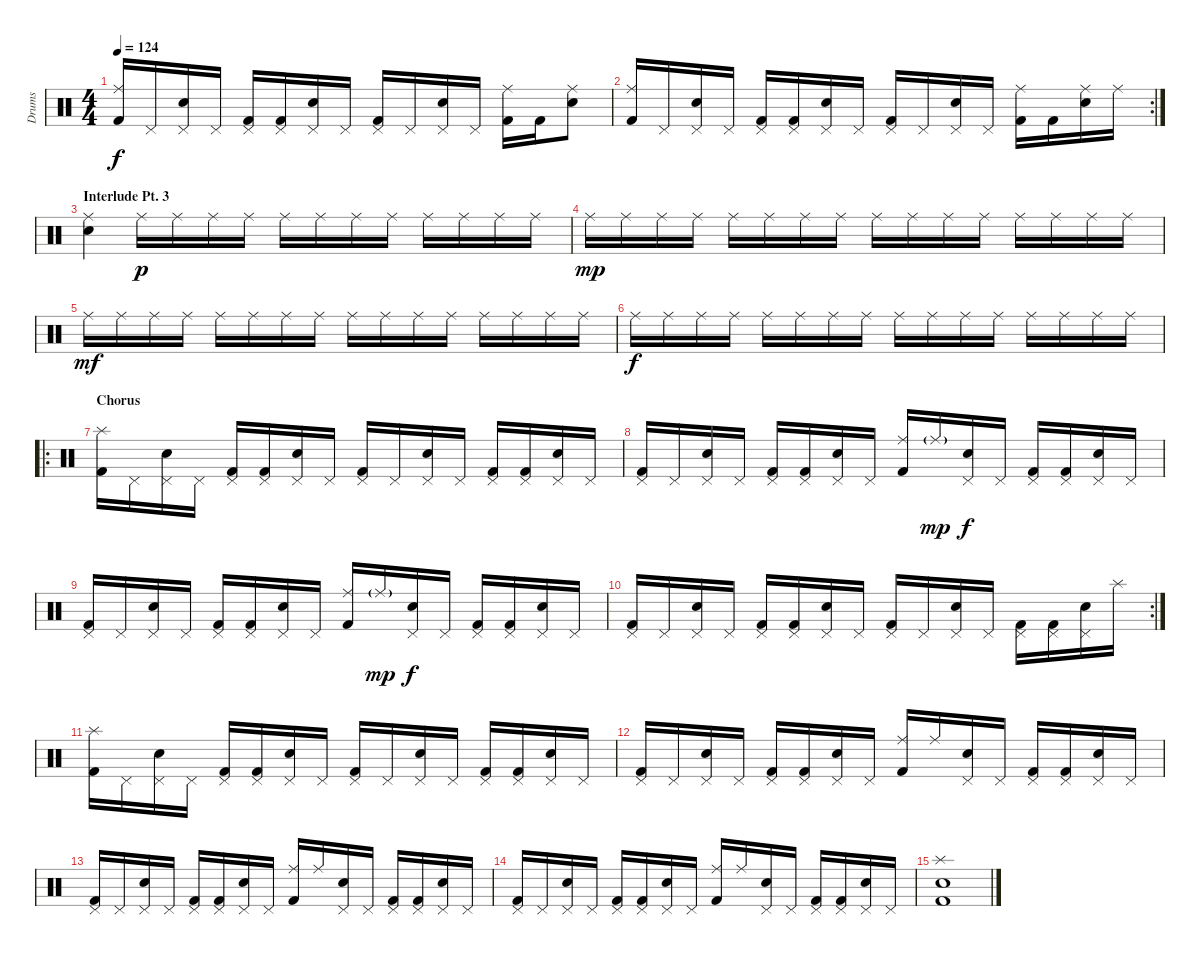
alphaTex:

\track ("Drums" "Drums") {instrument percussion}
\staff {score}
\articulation defaults
\ts (4 4)
\tempo 124
\clef neutral
\ks c
("Ride (middle)" "Kick (hit) 2").16{dy f} "Pedal Hi-Hat (hit)".16 ("Pedal Hi-Hat (hit)" "Electric Snare (hit)").16 "Pedal Hi-Hat (hit)".16 ("Pedal Hi-Hat (hit)" "Kick (hit) 2").16 ("Pedal Hi-Hat (hit)" "Kick (hit) 2").16 ("Pedal Hi-Hat (hit)" "Electric Snare (hit)").16 "Pedal Hi-Hat (hit)".16 ("Pedal Hi-Hat (hit)" "Kick (hit) 2").16 "Pedal Hi-Hat (hit)".16 ("Pedal Hi-Hat (hit)" "Electric Snare (hit)").16 "Pedal Hi-Hat (hit)".16 ("Ride (middle)" "Kick (hit) 2").16 "Kick (hit) 2".16 ("Ride (middle)" "Electric Snare (hit)").8 |
\rc 2
("Ride (middle)" "Kick (hit) 2").16 "Pedal Hi-Hat (hit)".16 ("Pedal Hi-Hat (hit)" "Electric Snare (hit)").16 "Pedal Hi-Hat (hit)".16 ("Pedal Hi-Hat (hit)" "Kick (hit) 2").16 ("Pedal Hi-Hat (hit)" "Kick (hit) 2").16 ("Pedal Hi-Hat (hit)" "Electric Snare (hit)").16 "Pedal Hi-Hat (hit)".16 ("Pedal Hi-Hat (hit)" "Kick (hit) 2").16 "Pedal Hi-Hat (hit)".16 ("Pedal Hi-Hat (hit)" "Electric Snare (hit)").16 "Pedal Hi-Hat (hit)".16 ("Ride (middle)" "Kick (hit) 2").16 "Kick (hit) 2".16 ("Ride (middle)" "Electric Snare (hit)").16 "Ride (middle)".16 |
\section ("" "Interlude Pt. 3")
("Ride (middle)" "Electric Snare (hit)").4 "Ride (middle)".16{dy p} "Ride (middle)".16 "Ride (middle)".16 "Ride (middle)".16 "Ride (middle)".16 "Ride (middle)".16 "Ride (middle)".16 "Ride (middle)".16 "Ride (middle)".16 "Ride (middle)".16 "Ride (middle)".16 "Ride (middle)".16 |
"Ride (middle)".16{dy mp} "Ride (middle)".16 "Ride (middle)".16 "Ride (middle)".16 "Ride (middle)".16 "Ride (middle)".16 "Ride (middle)".16 "Ride (middle)".16 "Ride (middle)".16 "Ride (middle)".16 "Ride (middle)".16 "Ride (middle)".16 "Ride (middle)".16 "Ride (middle)".16 "Ride (middle)".16 "Ride (middle)".16 |
"Ride (middle)".16{dy mf} "Ride (middle)".16 "Ride (middle)".16 "Ride (middle)".16 "Ride (middle)".16 "Ride (middle)".16 "Ride (middle)".16 "Ride (middle)".16 "Ride (middle)".16 "Ride (middle)".16 "Ride (middle)".16 "Ride (middle)".16 "Ride (middle)".16 "Ride (middle)".16 "Ride (middle)".16 "Ride (middle)".16 |
"Ride (middle)".16{dy f} "Ride (middle)".16 "Ride (middle)".16 "Ride (middle)".16 "Ride (middle)".16 "Ride (middle)".16 "Ride (middle)".16 "Ride (middle)".16 "Ride (middle)".16 "Ride (middle)".16 "Ride (middle)".16 "Ride (middle)".16 "Ride (middle)".16 "Ride (middle)".16 "Ride (middle)".16 "Ride (middle)".16 |
\ro
\section ("" "Chorus")
("Splash (hit)" "Kick (hit) 2").16 "Pedal Hi-Hat (hit)".16 ("Pedal Hi-Hat (hit)" "Electric Snare (hit)").16 "Pedal Hi-Hat (hit)".16 ("Pedal Hi-Hat (hit)" "Kick (hit) 2").16 ("Pedal Hi-Hat (hit)" "Kick (hit) 2").16 ("Pedal Hi-Hat (hit)" "Electric Snare (hit)").16 "Pedal Hi-Hat (hit)".16 ("Pedal Hi-Hat (hit)" "Kick (hit) 2").16 "Pedal Hi-Hat (hit)".16 ("Pedal Hi-Hat (hit)" "Electric Snare (hit)").16 "Pedal Hi-Hat (hit)".16 ("Pedal Hi-Hat (hit)" "Kick (hit) 2").16 ("Pedal Hi-Hat (hit)" "Kick (hit) 2").16 ("Pedal Hi-Hat (hit)" "Electric Snare (hit)").16 "Pedal Hi-Hat (hit)".16 |
("Pedal Hi-Hat (hit)" "Kick (hit) 2").16 "Pedal Hi-Hat (hit)".16 ("Pedal Hi-Hat (hit)" "Electric Snare (hit)").16 "Pedal Hi-Hat (hit)".16 ("Pedal Hi-Hat (hit)" "Kick (hit) 2").16 ("Pedal Hi-Hat (hit)" "Kick (hit) 2").16 ("Pedal Hi-Hat (hit)" "Electric Snare (hit)").16 "Pedal Hi-Hat (hit)".16 ("Ride (middle)" "Kick (hit) 2").16 "Ride (middle)"{g}.16{dy mp} ("Pedal Hi-Hat (hit)" "Electric Snare (hit)").16{dy f} "Pedal Hi-Hat (hit)".16 ("Pedal Hi-Hat (hit)" "Kick (hit) 2").16 ("Pedal Hi-Hat (hit)" "Kick (hit) 2").16 ("Pedal Hi-Hat (hit)" "Electric Snare (hit)").16 "Pedal Hi-Hat (hit)".16 |
("Pedal Hi-Hat (hit)" "Kick (hit) 2").16 "Pedal Hi-Hat (hit)".16 ("Pedal Hi-Hat (hit)" "Electric Snare (hit)").16 "Pedal Hi-Hat (hit)".16 ("Pedal Hi-Hat (hit)" "Kick (hit) 2").16 ("Pedal Hi-Hat (hit)" "Kick (hit) 2").16 ("Pedal Hi-Hat (hit)" "Electric Snare (hit)").16 "Pedal Hi-Hat (hit)".16 ("Ride (middle)" "Kick (hit) 2").16 "Ride (middle)"{g}.16{dy mp} ("Pedal Hi-Hat (hit)" "Electric Snare (hit)").16{dy f} "Pedal Hi-Hat (hit)".16 ("Pedal Hi-Hat (hit)" "Kick (hit) 2").16 ("Pedal Hi-Hat (hit)" "Kick (hit) 2").16 ("Pedal Hi-Hat (hit)" "Electric Snare (hit)").16 "Pedal Hi-Hat (hit)".16 |
\rc 2
("Pedal Hi-Hat (hit)" "Kick (hit) 2").16 "Pedal Hi-Hat (hit)".16 ("Pedal Hi-Hat (hit)" "Electric Snare (hit)").16 "Pedal Hi-Hat (hit)".16 ("Pedal Hi-Hat (hit)" "Kick (hit) 2").16 ("Pedal Hi-Hat (hit)" "Kick (hit) 2").16 ("Pedal Hi-Hat (hit)" "Electric Snare (hit)").16 "Pedal Hi-Hat (hit)".16 ("Pedal Hi-Hat (hit)" "Kick (hit) 2").16 "Pedal Hi-Hat (hit)".16 ("Pedal Hi-Hat (hit)" "Electric Snare (hit)").16 "Pedal Hi-Hat (hit)".16 ("Pedal Hi-Hat (hit)" "Kick (hit) 2").16 ("Pedal Hi-Hat (hit)" "Kick (hit) 2").16 ("Pedal Hi-Hat (hit)" "Electric Snare (hit)").16 "Splash (hit)".16 |
("Splash (hit)" "Kick (hit) 2").16 "Pedal Hi-Hat (hit)".16 ("Pedal Hi-Hat (hit)" "Electric Snare (hit)").16 "Pedal Hi-Hat (hit)".16 ("Pedal Hi-Hat (hit)" "Kick (hit) 2").16 ("Pedal Hi-Hat (hit)" "Kick (hit) 2").16 ("Pedal Hi-Hat (hit)" "Electric Snare (hit)").16 "Pedal Hi-Hat (hit)".16 ("Pedal Hi-Hat (hit)" "Kick (hit) 2").16 "Pedal Hi-Hat (hit)".16 ("Pedal Hi-Hat (hit)" "Electric Snare (hit)").16 "Pedal Hi-Hat (hit)".16 ("Pedal Hi-Hat (hit)" "Kick (hit) 2").16 ("Pedal Hi-Hat (hit)" "Kick (hit) 2").16 ("Pedal Hi-Hat (hit)" "Electric Snare (hit)").16 "Pedal Hi-Hat (hit)".16 |
("Pedal Hi-Hat (hit)" "Kick (hit) 2").16 "Pedal Hi-Hat (hit)".16 ("Pedal Hi-Hat (hit)" "Electric Snare (hit)").16 "Pedal Hi-Hat (hit)".16 ("Pedal Hi-Hat (hit)" "Kick (hit) 2").16 ("Pedal Hi-Hat (hit)" "Kick (hit) 2").16 ("Pedal Hi-Hat (hit)" "Electric Snare (hit)").16 "Pedal Hi-Hat (hit)".16 ("Ride (middle)" "Kick (hit) 2").16 "Ride (middle)".16 ("Pedal Hi-Hat (hit)" "Electric Snare (hit)").16 "Pedal Hi-Hat (hit)".16 ("Pedal Hi-Hat (hit)" "Kick (hit) 2").16 ("Pedal Hi-Hat (hit)" "Kick (hit) 2").16 ("Pedal Hi-Hat (hit)" "Electric Snare (hit)").16 "Pedal Hi-Hat (hit)".16 |
("Pedal Hi-Hat (hit)" "Kick (hit) 2").16 "Pedal Hi-Hat (hit)".16 ("Pedal Hi-Hat (hit)" "Electric Snare (hit)").16 "Pedal Hi-Hat (hit)".16 ("Pedal Hi-Hat (hit)" "Kick (hit) 2").16 ("Pedal Hi-Hat (hit)" "Kick (hit) 2").16 ("Pedal Hi-Hat (hit)" "Electric Snare (hit)").16 "Pedal Hi-Hat (hit)".16 ("Ride (middle)" "Kick (hit) 2").16 "Ride (middle)".16 ("Pedal Hi-Hat (hit)" "Electric Snare (hit)").16 "Pedal Hi-Hat (hit)".16 ("Pedal Hi-Hat (hit)" "Kick (hit) 2").16 ("Pedal Hi-Hat (hit)" "Kick (hit) 2").16 ("Pedal Hi-Hat (hit)" "Electric Snare (hit)").16 "Pedal Hi-Hat (hit)".16 |
("Pedal Hi-Hat (hit)" "Kick (hit) 2").16 "Pedal Hi-Hat (hit)".16 ("Pedal Hi-Hat (hit)" "Electric Snare (hit)").16 "Pedal Hi-Hat (hit)".16 ("Pedal Hi-Hat (hit)" "Kick (hit) 2").16 ("Pedal Hi-Hat (hit)" "Kick (hit) 2").16 ("Pedal Hi-Hat (hit)" "Electric Snare (hit)").16 "Pedal Hi-Hat (hit)".16 ("Ride (middle)" "Kick (hit) 2").16 "Ride (middle)".16 ("Pedal Hi-Hat (hit)" "Electric Snare (hit)").16 "Pedal Hi-Hat (hit)".16 ("Pedal Hi-Hat (hit)" "Kick (hit) 2").16 ("Pedal Hi-Hat (hit)" "Kick (hit) 2").16 ("Pedal Hi-Hat (hit)" "Electric Snare (hit)").16 "Pedal Hi-Hat (hit)".16 |
("Splash (hit)" "Electric Snare (hit)" "Kick (hit) 2").1
